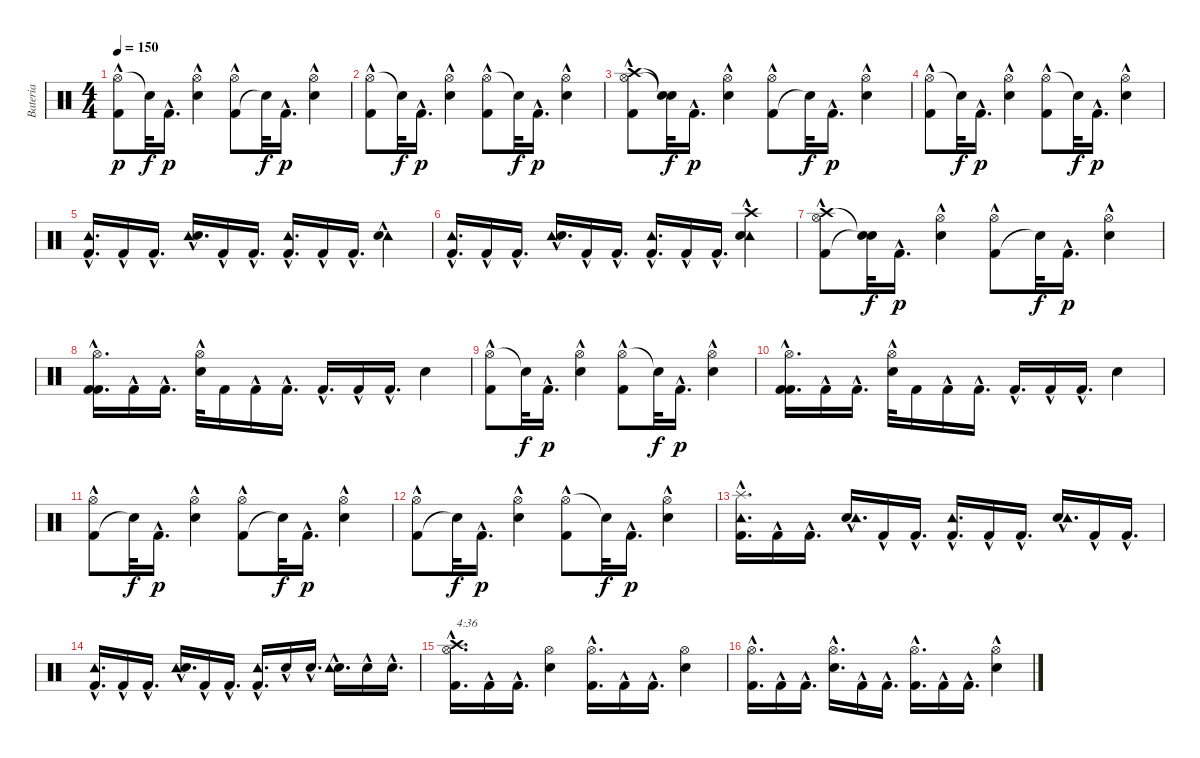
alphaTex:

\track ("Bateria" "Bateria") {instrument percussion}
\staff {score}
\articulation defaults
\ts (4 4)
\tempo 150
\clef neutral
\ks c
("Hi-Hat (open)" "Kick (hit) 2"{hac}).8{dy p} "Snare (hit)"{t}.32{dy f} "Kick (hit) 2"{hac}.16{d dy p} ("Hi-Hat (open)" "Snare (hit) 2"{hac}).4 ("Kick (hit) 2"{hac} "Hi-Hat (open)").8 "Snare (hit)"{t}.32{dy f} "Kick (hit) 2"{hac}.16{d dy p} ("Hi-Hat (open)" "Snare (hit) 2"{hac}).4 |
("Hi-Hat (open)" "Kick (hit) 2"{hac}).8 "Snare (hit)"{t}.32{dy f} "Kick (hit) 2"{hac}.16{d dy p} ("Hi-Hat (open)" "Snare (hit) 2"{hac}).4 ("Hi-Hat (open)" "Kick (hit) 2"{hac}).8 "Snare (hit)"{t}.32{dy f} "Kick (hit) 2"{hac}.16{d dy p} ("Hi-Hat (open)" "Snare (hit) 2"{hac}).4 |
("Hi-Hat (open)" "Crash high (hit)" "Kick (hit) 2"{hac}).8 ("Snare (hit)"{t} "Snare (hit)"{t}).32{dy f} "Kick (hit) 2"{hac}.16{d dy p} ("Snare (hit) 2"{hac} "Hi-Hat (open)").4 ("Kick (hit) 2"{hac} "Hi-Hat (open)").8 "Snare (hit)"{t}.32{dy f} "Kick (hit) 2"{hac}.16{d dy p} ("Snare (hit) 2"{hac} "Hi-Hat (open)").4 |
("Hi-Hat (open)" "Kick (hit) 2"{hac}).8 "Snare (hit)"{t}.32{dy f} "Kick (hit) 2"{hac}.16{d dy p} ("Snare (hit) 2"{hac} "Hi-Hat (open)").4 ("Hi-Hat (open)" "Kick (hit) 2"{hac}).8 "Snare (hit)"{t}.32{dy f} "Kick (hit) 2"{hac}.16{d dy p} ("Hi-Hat (open)" "Snare (hit) 2"{hac}).4 |
("Kick (hit) 2"{hac} "Tambourine (hit)").16{d} "Kick (hit) 2"{hac}.16 "Kick (hit) 2"{hac}.16{d} ("Tambourine (hit)" "Snare (hit) 2"{hac}).16{d} "Kick (hit) 2"{hac}.16 "Kick (hit) 2"{hac}.16{d} ("Kick (hit) 2"{hac} "Tambourine (hit)").16{d} "Kick (hit) 2"{hac}.16 "Kick (hit) 2"{hac}.16{d} ("Tambourine (hit)" "Snare (hit) 2"{hac}).4 |
("Tambourine (hit)" "Kick (hit) 2"{hac}).16{d} "Kick (hit) 2"{hac}.16 "Kick (hit) 2"{hac}.16{d} ("Tambourine (hit)" "Snare (hit) 2"{hac}).16{d} "Kick (hit) 2"{hac}.16 "Kick (hit) 2"{hac}.16{d} ("Tambourine (hit)" "Kick (hit) 2"{hac}).16{d} "Kick (hit) 2"{hac}.16 "Kick (hit) 2"{hac}.16{d} ("Crash high (hit)" "Tambourine (hit)" "Snare (hit) 2"{hac}).4 |
("Crash high (hit)" "Kick (hit) 2"{hac} "Hi-Hat (open)").8 ("Snare (hit)"{t} "Snare (hit)"{t}).32{dy f} "Kick (hit) 2"{hac}.16{d dy p} ("Snare (hit) 2"{hac} "Hi-Hat (open)").4 ("Kick (hit) 2"{hac} "Hi-Hat (open)").8 "Snare (hit)"{t}.32{dy f} "Kick (hit) 2"{hac}.16{d dy p} ("Snare (hit) 2"{hac} "Hi-Hat (open)").4 |
("Kick (hit) 2"{hac} "Kick (hit) 2"{hac} "Hi-Hat (open)").16{d} "Kick (hit) 2"{hac}.16 "Kick (hit) 2"{hac}.16{d} ("Hi-Hat (open)" "Snare (hit) 2"{hac}).32 "Kick (hit) 2".16 "Kick (hit) 2"{hac}.16 "Kick (hit) 2"{hac}.16{d} "Kick (hit) 2"{hac}.16{d} "Kick (hit) 2"{hac}.16 "Kick (hit) 2"{hac}.16{d} "Snare (hit) 2".4 |
("Hi-Hat (open)" "Kick (hit) 2"{hac}).8 "Snare (hit)"{t}.32{dy f} "Kick (hit) 2"{hac}.16{d dy p} ("Hi-Hat (open)" "Snare (hit) 2"{hac}).4 ("Hi-Hat (open)" "Kick (hit) 2"{hac}).8 "Snare (hit)"{t}.32{dy f} "Kick (hit) 2"{hac}.16{d dy p} ("Hi-Hat (open)" "Snare (hit) 2"{hac}).4 |
("Kick (hit) 2"{hac} "Hi-Hat (open)" "Kick (hit) 2"{hac}).16{d} "Kick (hit) 2"{hac}.16 "Kick (hit) 2"{hac}.16{d} ("Hi-Hat (open)" "Snare (hit) 2"{hac}).32 "Kick (hit) 2".16 "Kick (hit) 2"{hac}.16 "Kick (hit) 2"{hac}.16{d} "Kick (hit) 2"{hac}.16{d} "Kick (hit) 2"{hac}.16 "Kick (hit) 2"{hac}.16{d} "Snare (hit) 2".4 |
("Kick (hit) 2"{hac} "Hi-Hat (open)").8 "Snare (hit)"{t}.32{dy f} "Kick (hit) 2"{hac}.16{d dy p} ("Snare (hit) 2"{hac} "Hi-Hat (open)").4 ("Kick (hit) 2"{hac} "Hi-Hat (open)").8 "Snare (hit)"{t}.32{dy f} "Kick (hit) 2"{hac}.16{d dy p} ("Snare (hit) 2"{hac} "Hi-Hat (open)").4 |
("Kick (hit) 2"{hac} "Hi-Hat (open)").8 "Snare (hit)"{t}.32{dy f} "Kick (hit) 2"{hac}.16{d dy p} ("Snare (hit) 2"{hac} "Hi-Hat (open)").4 ("Hi-Hat (open)" "Kick (hit) 2"{hac}).8 "Snare (hit)"{t}.32{dy f} "Kick (hit) 2"{hac}.16{d dy p} ("Hi-Hat (open)" "Snare (hit) 2"{hac}).4 |
("Tambourine (hit)" "Kick (hit) 2"{hac} "Splash (hit)").16{d} "Kick (hit) 2"{hac}.16 "Kick (hit) 2"{hac}.16{d} ("Snare (hit) 2"{hac} "Tambourine (hit)").16{d} "Kick (hit) 2"{hac}.16 "Kick (hit) 2"{hac}.16{d} ("Kick (hit) 2"{hac} "Tambourine (hit)").16{d} "Kick (hit) 2"{hac}.16 "Kick (hit) 2"{hac}.16{d} ("Snare (hit) 2"{hac} "Tambourine (hit)").16{d} "Kick (hit) 2"{hac}.16 "Kick (hit) 2"{hac}.16{d} |
("Tambourine (hit)" "Kick (hit) 2"{hac}).16{d} "Kick (hit) 2"{hac}.16 "Kick (hit) 2"{hac}.16{d} ("Tambourine (hit)" "Snare (hit) 2"{hac}).16{d} "Kick (hit) 2"{hac}.16 "Kick (hit) 2"{hac}.16{d} ("Tambourine (hit)" "Kick (hit) 2"{hac}).16{d} "Snare (hit) 2"{hac}.16 "Snare (hit) 2"{hac}.16{d} ("Snare (hit) 2"{hac} "Tambourine (hit)").16{d} "Snare (hit) 2"{hac}.16 "Snare (hit) 2"{hac}.16{d} |
("Kick (hit) 2"{hac} "Hi-Hat (open)" "Crash high (hit)").16{d txt "4:36"} "Kick (hit) 2"{hac}.16 "Kick (hit) 2"{hac}.16{d} ("Snare (hit) 2" "Hi-Hat (open)").4 ("Kick (hit) 2"{hac} "Hi-Hat (open)").16{d} "Kick (hit) 2"{hac}.16 "Kick (hit) 2"{hac}.16{d} ("Snare (hit) 2" "Hi-Hat (open)").4 |
("Kick (hit) 2"{hac} "Hi-Hat (open)").16{d} "Kick (hit) 2"{hac}.16 "Kick (hit) 2"{hac}.16{d} ("Snare (hit) 2"{hac} "Hi-Hat (open)").16{d} "Kick (hit) 2"{hac}.16 "Kick (hit) 2"{hac}.16{d} ("Kick (hit) 2"{hac} "Hi-Hat (open)").16{d} "Kick (hit) 2"{hac}.16 "Kick (hit) 2"{hac}.16{d} ("Electric Snare (hit)"{hac} "Hi-Hat (open)").4
